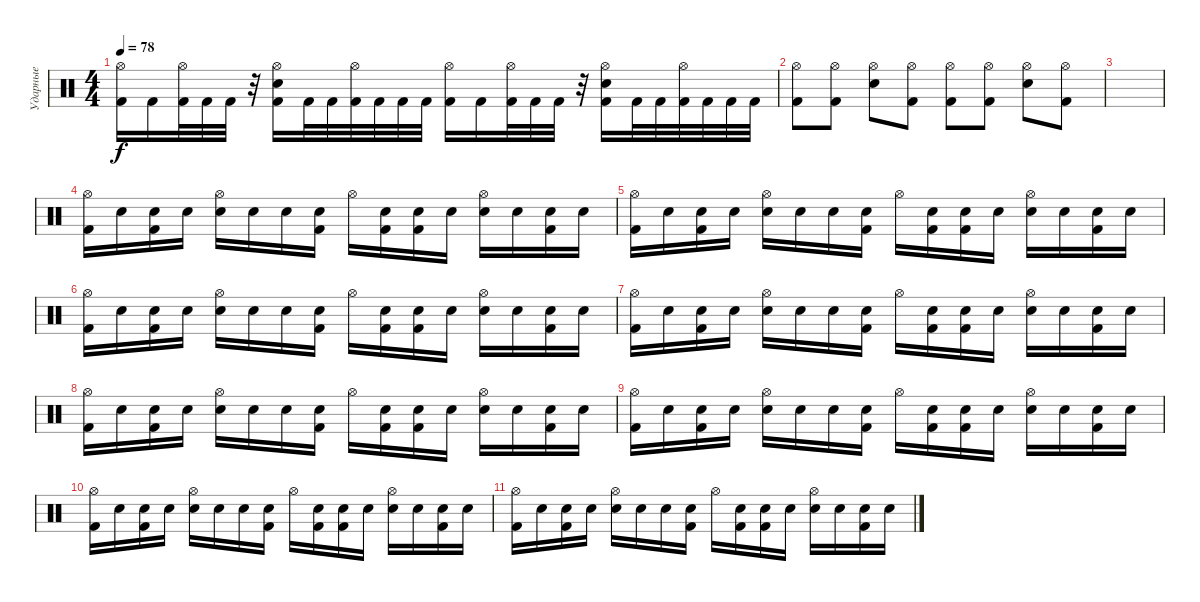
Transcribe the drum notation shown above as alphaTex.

\track ("Ударные" "Ударные") {instrument percussion}
\staff {score}
\articulation defaults
\ts (4 4)
\tempo 78
\clef neutral
\ks c
("Hi-Hat (open)" "Kick (hit) 2").16{dy f} "Kick (hit) 2".16 ("Hi-Hat (open)" "Kick (hit) 2").32 "Kick (hit) 2".32 "Kick (hit) 2".32 r.32 ("Electric Snare (hit)" "Hi-Hat (open)" "Kick (hit) 2").16 "Kick (hit) 2".32 "Kick (hit) 2".32 ("Hi-Hat (open)" "Kick (hit) 2").32 "Kick (hit) 2".32 "Kick (hit) 2".32 "Kick (hit) 2".32 ("Hi-Hat (open)" "Kick (hit) 2").16 "Kick (hit) 2".16 ("Hi-Hat (open)" "Kick (hit) 2").32 "Kick (hit) 2".32 "Kick (hit) 2".32 r.32 ("Electric Snare (hit)" "Hi-Hat (open)" "Kick (hit) 2").16 "Kick (hit) 2".32 "Kick (hit) 2".32 ("Hi-Hat (open)" "Kick (hit) 2").32 "Kick (hit) 2".32 "Kick (hit) 2".32 "Kick (hit) 2".32 |
("Hi-Hat (open)" "Kick (hit) 2").8 ("Hi-Hat (open)" "Kick (hit) 2").8 ("Hi-Hat (open)" "Electric Snare (hit)").8 ("Hi-Hat (open)" "Kick (hit) 2").8 ("Hi-Hat (open)" "Kick (hit) 2").8 ("Hi-Hat (open)" "Kick (hit) 2").8 ("Hi-Hat (open)" "Electric Snare (hit)").8 ("Hi-Hat (open)" "Kick (hit) 2").8 |
|
("Hi-Hat (open)" "Kick (hit) 2").16 "Snare (hit)".16 ("Snare (hit)" "Kick (hit) 2").16 "Snare (hit)".16 ("Hi-Hat (open)" "Electric Snare (hit)").16 "Snare (hit)".16 "Snare (hit)".16 ("Snare (hit)" "Kick (hit) 2").16 "Hi-Hat (open)".16 ("Snare (hit)" "Kick (hit) 2").16 ("Snare (hit)" "Kick (hit) 2").16 "Snare (hit)".16 ("Hi-Hat (open)" "Electric Snare (hit)").16 "Snare (hit)".16 ("Snare (hit)" "Kick (hit) 2").16 "Snare (hit)".16 |
("Hi-Hat (open)" "Kick (hit) 2").16 "Snare (hit)".16 ("Snare (hit)" "Kick (hit) 2").16 "Snare (hit)".16 ("Hi-Hat (open)" "Electric Snare (hit)").16 "Snare (hit)".16 "Snare (hit)".16 ("Snare (hit)" "Kick (hit) 2").16 "Hi-Hat (open)".16 ("Snare (hit)" "Kick (hit) 2").16 ("Snare (hit)" "Kick (hit) 2").16 "Snare (hit)".16 ("Hi-Hat (open)" "Electric Snare (hit)").16 "Snare (hit)".16 ("Snare (hit)" "Kick (hit) 2").16 "Snare (hit)".16 |
("Hi-Hat (open)" "Kick (hit) 2").16 "Snare (hit)".16 ("Snare (hit)" "Kick (hit) 2").16 "Snare (hit)".16 ("Hi-Hat (open)" "Electric Snare (hit)").16 "Snare (hit)".16 "Snare (hit)".16 ("Snare (hit)" "Kick (hit) 2").16 "Hi-Hat (open)".16 ("Snare (hit)" "Kick (hit) 2").16 ("Snare (hit)" "Kick (hit) 2").16 "Snare (hit)".16 ("Hi-Hat (open)" "Electric Snare (hit)").16 "Snare (hit)".16 ("Snare (hit)" "Kick (hit) 2").16 "Snare (hit)".16 |
("Hi-Hat (open)" "Kick (hit) 2").16 "Snare (hit)".16 ("Snare (hit)" "Kick (hit) 2").16 "Snare (hit)".16 ("Hi-Hat (open)" "Electric Snare (hit)").16 "Snare (hit)".16 "Snare (hit)".16 ("Snare (hit)" "Kick (hit) 2").16 "Hi-Hat (open)".16 ("Snare (hit)" "Kick (hit) 2").16 ("Snare (hit)" "Kick (hit) 2").16 "Snare (hit)".16 ("Hi-Hat (open)" "Electric Snare (hit)").16 "Snare (hit)".16 ("Snare (hit)" "Kick (hit) 2").16 "Snare (hit)".16 |
("Hi-Hat (open)" "Kick (hit) 2").16 "Snare (hit)".16 ("Snare (hit)" "Kick (hit) 2").16 "Snare (hit)".16 ("Hi-Hat (open)" "Electric Snare (hit)").16 "Snare (hit)".16 "Snare (hit)".16 ("Snare (hit)" "Kick (hit) 2").16 "Hi-Hat (open)".16 ("Snare (hit)" "Kick (hit) 2").16 ("Snare (hit)" "Kick (hit) 2").16 "Snare (hit)".16 ("Hi-Hat (open)" "Electric Snare (hit)").16 "Snare (hit)".16 ("Snare (hit)" "Kick (hit) 2").16 "Snare (hit)".16 |
("Hi-Hat (open)" "Kick (hit) 2").16 "Snare (hit)".16 ("Snare (hit)" "Kick (hit) 2").16 "Snare (hit)".16 ("Hi-Hat (open)" "Electric Snare (hit)").16 "Snare (hit)".16 "Snare (hit)".16 ("Snare (hit)" "Kick (hit) 2").16 "Hi-Hat (open)".16 ("Snare (hit)" "Kick (hit) 2").16 ("Snare (hit)" "Kick (hit) 2").16 "Snare (hit)".16 ("Hi-Hat (open)" "Electric Snare (hit)").16 "Snare (hit)".16 ("Snare (hit)" "Kick (hit) 2").16 "Snare (hit)".16 |
("Hi-Hat (open)" "Kick (hit) 2").16 "Snare (hit)".16 ("Snare (hit)" "Kick (hit) 2").16 "Snare (hit)".16 ("Hi-Hat (open)" "Electric Snare (hit)").16 "Snare (hit)".16 "Snare (hit)".16 ("Snare (hit)" "Kick (hit) 2").16 "Hi-Hat (open)".16 ("Snare (hit)" "Kick (hit) 2").16 ("Snare (hit)" "Kick (hit) 2").16 "Snare (hit)".16 ("Hi-Hat (open)" "Electric Snare (hit)").16 "Snare (hit)".16 ("Snare (hit)" "Kick (hit) 2").16 "Snare (hit)".16 |
("Hi-Hat (open)" "Kick (hit) 2").16 "Snare (hit)".16 ("Snare (hit)" "Kick (hit) 2").16 "Snare (hit)".16 ("Hi-Hat (open)" "Electric Snare (hit)").16 "Snare (hit)".16 "Snare (hit)".16 ("Snare (hit)" "Kick (hit) 2").16 "Hi-Hat (open)".16 ("Snare (hit)" "Kick (hit) 2").16 ("Snare (hit)" "Kick (hit) 2").16 "Snare (hit)".16 ("Hi-Hat (open)" "Electric Snare (hit)").16 "Snare (hit)".16 ("Snare (hit)" "Kick (hit) 2").16 "Snare (hit)".16
